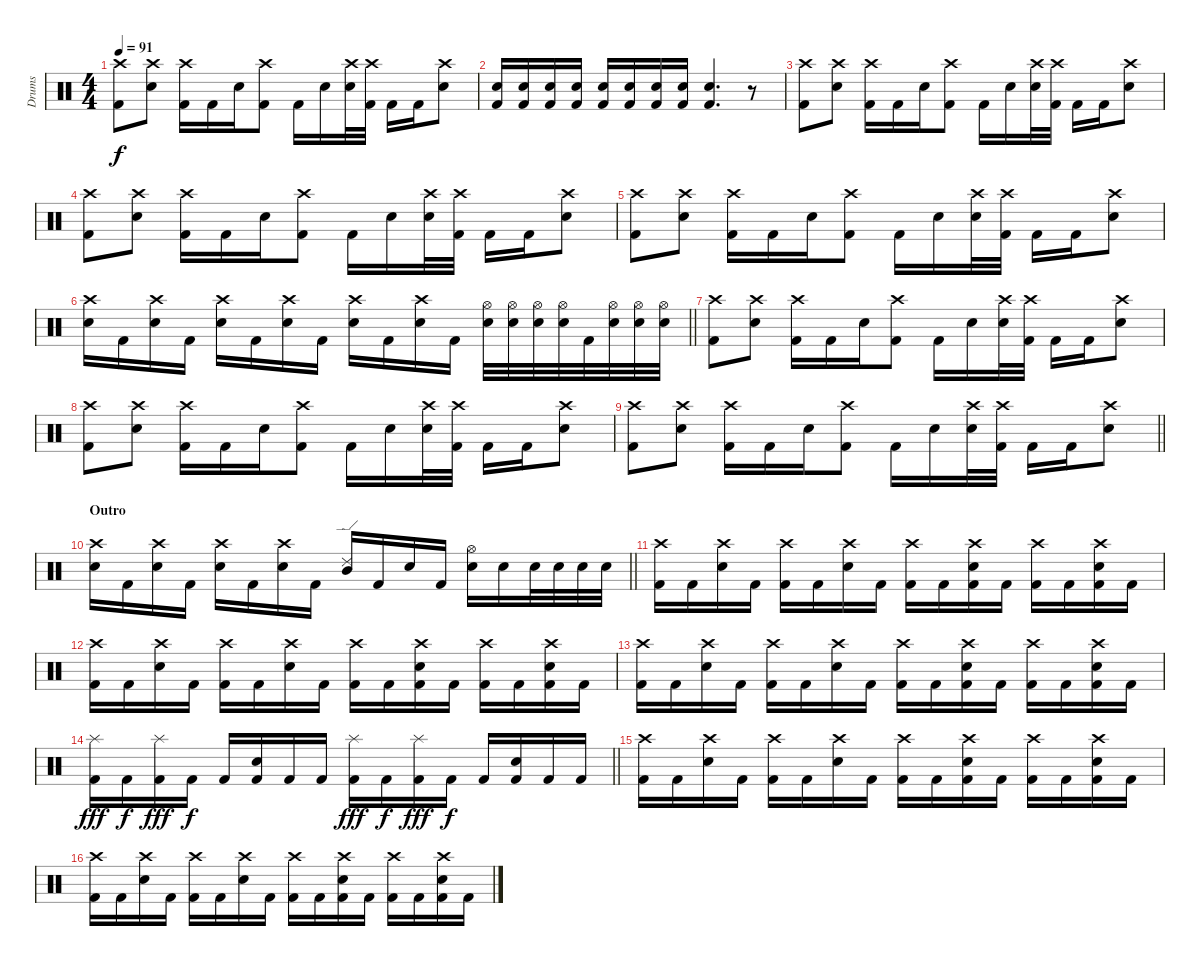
\track ("Drums" "Drums") {instrument percussion}
\staff {score}
\articulation defaults
\ts (4 4)
\tempo 91
\clef neutral
\ks c
("Crash high (hit)" "Kick (hit) 2").8{dy f} ("Crash high (hit)" "Electric Snare (hit)").8 ("Crash high (hit)" "Kick (hit) 2").16 "Kick (hit) 2".16 "Electric Snare (hit)".16 ("Crash high (hit)" "Kick (hit) 2").8 "Kick (hit) 2".16 "Electric Snare (hit)".16 ("Crash high (hit)" "Electric Snare (hit)").32 ("Crash high (hit)" "Kick (hit) 2").32 "Kick (hit) 2".16 "Kick (hit) 2".16 ("Crash high (hit)" "Electric Snare (hit)").8 |
("Electric Snare (hit)" "Kick (hit) 2").16 ("Electric Snare (hit)" "Kick (hit) 2").16 ("Electric Snare (hit)" "Kick (hit) 2").16 ("Electric Snare (hit)" "Kick (hit) 2").16 ("Electric Snare (hit)" "Kick (hit) 2").16 ("Electric Snare (hit)" "Kick (hit) 2").16 ("Electric Snare (hit)" "Kick (hit) 2").16 ("Electric Snare (hit)" "Kick (hit) 2").16 ("Electric Snare (hit)" "Kick (hit) 2").4{d} r.8 |
("Crash high (hit)" "Kick (hit) 2").8 ("Crash high (hit)" "Electric Snare (hit)").8 ("Crash high (hit)" "Kick (hit) 2").16 "Kick (hit) 2".16 "Electric Snare (hit)".16 ("Crash high (hit)" "Kick (hit) 2").8 "Kick (hit) 2".16 "Electric Snare (hit)".16 ("Crash high (hit)" "Electric Snare (hit)").32 ("Crash high (hit)" "Kick (hit) 2").32 "Kick (hit) 2".16 "Kick (hit) 2".16 ("Crash high (hit)" "Electric Snare (hit)").8 |
("Crash high (hit)" "Kick (hit) 2").8 ("Crash high (hit)" "Electric Snare (hit)").8 ("Crash high (hit)" "Kick (hit) 2").16 "Kick (hit) 2".16 "Electric Snare (hit)".16 ("Crash high (hit)" "Kick (hit) 2").8 "Kick (hit) 2".16 "Electric Snare (hit)".16 ("Crash high (hit)" "Electric Snare (hit)").32 ("Crash high (hit)" "Kick (hit) 2").32 "Kick (hit) 2".16 "Kick (hit) 2".16 ("Crash high (hit)" "Electric Snare (hit)").8 |
("Crash high (hit)" "Kick (hit) 2").8 ("Crash high (hit)" "Electric Snare (hit)").8 ("Crash high (hit)" "Kick (hit) 2").16 "Kick (hit) 2".16 "Electric Snare (hit)".16 ("Crash high (hit)" "Kick (hit) 2").8 "Kick (hit) 2".16 "Electric Snare (hit)".16 ("Crash high (hit)" "Electric Snare (hit)").32 ("Crash high (hit)" "Kick (hit) 2").32 "Kick (hit) 2".16 "Kick (hit) 2".16 ("Crash high (hit)" "Electric Snare (hit)").8 |
\barLineRight lightlight
("Crash high (hit)" "Electric Snare (hit)").16 "Kick (hit) 2".16 ("Crash high (hit)" "Electric Snare (hit)").16 "Kick (hit) 2".16 ("Crash high (hit)" "Electric Snare (hit)").16 "Kick (hit) 2".16 ("Crash high (hit)" "Electric Snare (hit)").16 "Kick (hit) 2".16 ("Crash high (hit)" "Electric Snare (hit)").16 "Kick (hit) 2".16 ("Crash high (hit)" "Electric Snare (hit)").16 "Kick (hit) 2".16 ("Hi-Hat (open)" "Electric Snare (hit)").32 ("Hi-Hat (open)" "Electric Snare (hit)").32 ("Hi-Hat (open)" "Electric Snare (hit)").32 ("Hi-Hat (open)" "Electric Snare (hit)").32 "Kick (hit) 2".32 ("Hi-Hat (open)" "Electric Snare (hit)").32 ("Hi-Hat (open)" "Electric Snare (hit)").32 ("Hi-Hat (open)" "Electric Snare (hit)").32 |
("Crash high (hit)" "Kick (hit) 2").8 ("Crash high (hit)" "Electric Snare (hit)").8 ("Crash high (hit)" "Kick (hit) 2").16 "Kick (hit) 2".16 "Electric Snare (hit)".16 ("Crash high (hit)" "Kick (hit) 2").8 "Kick (hit) 2".16 "Electric Snare (hit)".16 ("Crash high (hit)" "Electric Snare (hit)").32 ("Crash high (hit)" "Kick (hit) 2").32 "Kick (hit) 2".16 "Kick (hit) 2".16 ("Crash high (hit)" "Electric Snare (hit)").8 |
("Crash high (hit)" "Kick (hit) 2").8 ("Crash high (hit)" "Electric Snare (hit)").8 ("Crash high (hit)" "Kick (hit) 2").16 "Kick (hit) 2".16 "Electric Snare (hit)".16 ("Crash high (hit)" "Kick (hit) 2").8 "Kick (hit) 2".16 "Electric Snare (hit)".16 ("Crash high (hit)" "Electric Snare (hit)").32 ("Crash high (hit)" "Kick (hit) 2").32 "Kick (hit) 2".16 "Kick (hit) 2".16 ("Crash high (hit)" "Electric Snare (hit)").8 |
\barLineRight lightlight
("Crash high (hit)" "Kick (hit) 2").8 ("Crash high (hit)" "Electric Snare (hit)").8 ("Crash high (hit)" "Kick (hit) 2").16 "Kick (hit) 2".16 "Electric Snare (hit)".16 ("Crash high (hit)" "Kick (hit) 2").8 "Kick (hit) 2".16 "Electric Snare (hit)".16 ("Crash high (hit)" "Electric Snare (hit)").32 ("Crash high (hit)" "Kick (hit) 2").32 "Kick (hit) 2".16 "Kick (hit) 2".16 ("Crash high (hit)" "Electric Snare (hit)").8 |
\section ("" "Outro")
\barLineRight lightlight
("Crash high (hit)" "Electric Snare (hit)").16 "Kick (hit) 2".16 ("Crash high (hit)" "Electric Snare (hit)").16 "Kick (hit) 2".16 ("Crash high (hit)" "Electric Snare (hit)").16 "Kick (hit) 2".16 ("Crash high (hit)" "Electric Snare (hit)").16 "Kick (hit) 2".16 ("Ride (edge) 2" "Mid Tom (hit)").16 "Kick (hit) 2".16 "Electric Snare (hit)".16 "Kick (hit) 2".16 ("Hi-Hat (open)" "Electric Snare (hit)").16 "Electric Snare (hit)".16 "Electric Snare (hit)".32 "Electric Snare (hit)".32 "Electric Snare (hit)".32 "Electric Snare (hit)".32 |
("Crash high (hit)" "Kick (hit) 2").16 "Kick (hit) 2".16 ("Crash high (hit)" "Electric Snare (hit)").16 "Kick (hit) 2".16 ("Crash high (hit)" "Kick (hit) 2").16 "Kick (hit) 2".16 ("Crash high (hit)" "Electric Snare (hit)").16 "Kick (hit) 2".16 ("Crash high (hit)" "Kick (hit) 2").16 "Kick (hit) 2".16 ("Crash high (hit)" "Electric Snare (hit)" "Kick (hit) 2").16 "Kick (hit) 2".16 ("Crash high (hit)" "Kick (hit) 2").16 "Kick (hit) 2".16 ("Crash high (hit)" "Electric Snare (hit)" "Kick (hit) 2").16 "Kick (hit) 2".16 |
("Crash high (hit)" "Kick (hit) 2").16 "Kick (hit) 2".16 ("Crash high (hit)" "Electric Snare (hit)").16 "Kick (hit) 2".16 ("Crash high (hit)" "Kick (hit) 2").16 "Kick (hit) 2".16 ("Crash high (hit)" "Electric Snare (hit)").16 "Kick (hit) 2".16 ("Crash high (hit)" "Kick (hit) 2").16 "Kick (hit) 2".16 ("Crash high (hit)" "Electric Snare (hit)" "Kick (hit) 2").16 "Kick (hit) 2".16 ("Crash high (hit)" "Kick (hit) 2").16 "Kick (hit) 2".16 ("Crash high (hit)" "Electric Snare (hit)" "Kick (hit) 2").16 "Kick (hit) 2".16 |
("Crash high (hit)" "Kick (hit) 2").16 "Kick (hit) 2".16 ("Crash high (hit)" "Electric Snare (hit)").16 "Kick (hit) 2".16 ("Crash high (hit)" "Kick (hit) 2").16 "Kick (hit) 2".16 ("Crash high (hit)" "Electric Snare (hit)").16 "Kick (hit) 2".16 ("Crash high (hit)" "Kick (hit) 2").16 "Kick (hit) 2".16 ("Crash high (hit)" "Electric Snare (hit)" "Kick (hit) 2").16 "Kick (hit) 2".16 ("Crash high (hit)" "Kick (hit) 2").16 "Kick (hit) 2".16 ("Crash high (hit)" "Electric Snare (hit)" "Kick (hit) 2").16 "Kick (hit) 2".16 |
\barLineRight lightlight
("Splash (hit)" "Kick (hit) 2").16{dy fff} "Kick (hit) 2".16{dy f} ("Splash (hit)" "Kick (hit) 2").16{dy fff} "Kick (hit) 2".16{dy f} "Kick (hit) 2".16 ("Electric Snare (hit)" "Kick (hit) 2").16 "Kick (hit) 2".16 "Kick (hit) 2".16 ("Splash (hit)" "Kick (hit) 2").16{dy fff} "Kick (hit) 2".16{dy f} ("Splash (hit)" "Kick (hit) 2").16{dy fff} "Kick (hit) 2".16{dy f} "Kick (hit) 2".16 ("Electric Snare (hit)" "Kick (hit) 2").16 "Kick (hit) 2".16 "Kick (hit) 2".16 |
("Crash high (hit)" "Kick (hit) 2").16 "Kick (hit) 2".16 ("Crash high (hit)" "Electric Snare (hit)").16 "Kick (hit) 2".16 ("Crash high (hit)" "Kick (hit) 2").16 "Kick (hit) 2".16 ("Crash high (hit)" "Electric Snare (hit)").16 "Kick (hit) 2".16 ("Crash high (hit)" "Kick (hit) 2").16 "Kick (hit) 2".16 ("Crash high (hit)" "Electric Snare (hit)" "Kick (hit) 2").16 "Kick (hit) 2".16 ("Crash high (hit)" "Kick (hit) 2").16 "Kick (hit) 2".16 ("Crash high (hit)" "Electric Snare (hit)" "Kick (hit) 2").16 "Kick (hit) 2".16 |
("Crash high (hit)" "Kick (hit) 2").16 "Kick (hit) 2".16 ("Crash high (hit)" "Electric Snare (hit)").16 "Kick (hit) 2".16 ("Crash high (hit)" "Kick (hit) 2").16 "Kick (hit) 2".16 ("Crash high (hit)" "Electric Snare (hit)").16 "Kick (hit) 2".16 ("Crash high (hit)" "Kick (hit) 2").16 "Kick (hit) 2".16 ("Crash high (hit)" "Electric Snare (hit)" "Kick (hit) 2").16 "Kick (hit) 2".16 ("Crash high (hit)" "Kick (hit) 2").16 "Kick (hit) 2".16 ("Crash high (hit)" "Electric Snare (hit)" "Kick (hit) 2").16 "Kick (hit) 2".16
